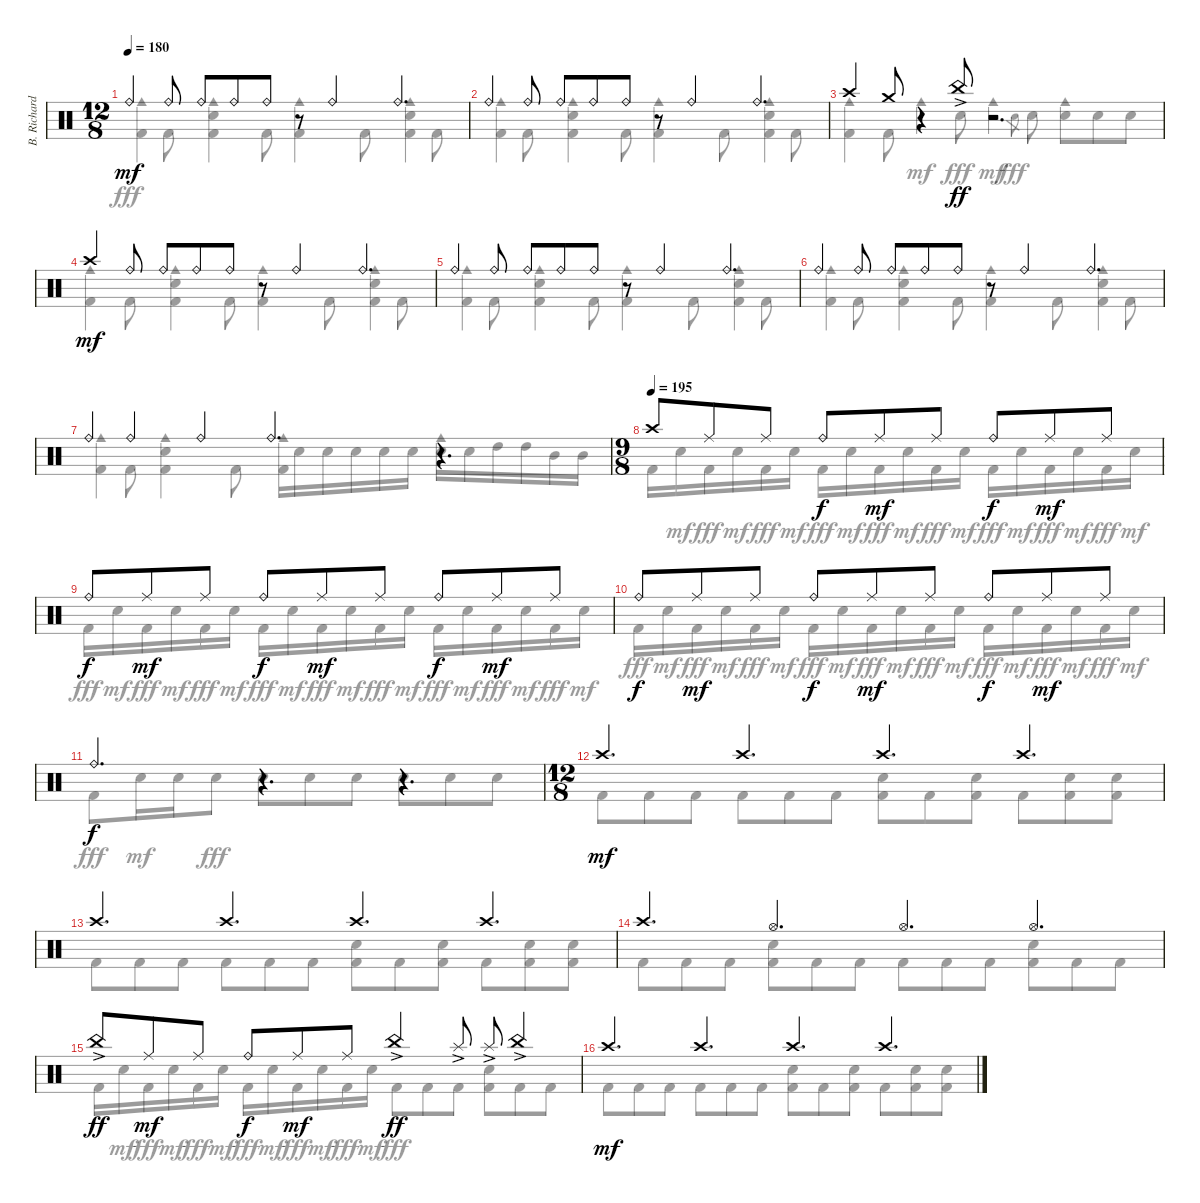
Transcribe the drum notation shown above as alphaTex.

\track ("B. Richardson Drums" "B. Richard") {instrument percussion}
\staff {score}
\articulation defaults
\voice
\ts (12 8)
\tempo 180
\clef neutral
\ks c "Ride (bell)".4{dy mf} "Ride (bell)".8 "Ride (bell)".8 "Ride (bell)".8 "Ride (bell)".8
r.8 "Ride (bell)".4 "Ride (bell)".4{d} |
"Ride (bell)".4 "Ride (bell)".8 "Ride (bell)".8 "Ride (bell)".8 "Ride (bell)".8 r.8 "Ride (bell)".4 "Ride (bell)".4{d} |
"Crash high (hit)".4 "Crash medium (hit)".8 r.4 "China (hit)"{ac}.8{dy ff} r.2{d} |
"Crash high (hit)".4{dy mf} "Ride (bell)".8 "Ride (bell)".8 "Ride (bell)".8 "Ride (bell)".8 r.8 "Ride (bell)".4 "Ride (bell)".4{d} |
"Ride (bell)".4 "Ride (bell)".8 "Ride (bell)".8 "Ride (bell)".8 "Ride (bell)".8 r.8 "Ride (bell)".4 "Ride (bell)".4{d} |
"Ride (bell)".4 "Ride (bell)".8 "Ride (bell)".8 "Ride (bell)".8 "Ride (bell)".8 r.8 "Ride (bell)".4 "Ride (bell)".4{d} |
"Ride (bell)".4 "Ride (bell)".4 "Ride (bell)".4 "Ride (bell)".4{d} r.4{d} |
\ts (9 8)
\tempo (195)
"Crash high (hit)".8 "Ride (middle)".8 "Ride (middle)".8 "Ride (bell)".8{dy f} "Ride (middle)".8{dy mf} "Ride (middle)".8 "Ride (bell)".8{dy f} "Ride (middle)".8{dy mf} "Ride (middle)".8 |
"Ride (bell)".8{dy f} "Ride (middle)".8{dy mf} "Ride (middle)".8 "Ride (bell)".8{dy f} "Ride (middle)".8{dy mf} "Ride (middle)".8 "Ride (bell)".8{dy f} "Ride (middle)".8{dy mf} "Ride (middle)".8 |
"Ride (bell)".8{dy f} "Ride (middle)".8{dy mf} "Ride (middle)".8 "Ride (bell)".8{dy f} "Ride (middle)".8{dy mf} "Ride (middle)".8 "Ride (bell)".8{dy f} "Ride (middle)".8{dy mf} "Ride (middle)".8 |
"Ride (bell)".4{d dy f} r.4{d} r.4{d} |
\ts (12 8)
"Crash high (hit)".4{d dy mf} "Crash high (hit)".4{d} "Crash high (hit)".4{d} "Crash high (hit)".4{d} |
"Crash high (hit)".4{d} "Crash high (hit)".4{d} "Crash high (hit)".4{d} "Crash high (hit)".4{d} |
"Crash high (hit)".4{d} "Hi-Hat (open)".4{d} "Hi-Hat (open)".4{d} "Hi-Hat (open)".4{d} |
"China (hit)"{ac}.8{dy ff} "Ride (middle)".8{dy mf} "Ride (middle)".8 "Ride (bell)".8{dy f} "Ride (middle)".8{dy mf} "Ride (middle)".8 "China (hit)"{ac}.4{dy ff} "Splash (hit)"{ac}.8 "Splash (hit)"{ac}.8 "China (hit)"{ac}.4 |
"Crash high (hit)".4{d dy mf} "Crash high (hit)".4{d} "Crash high (hit)".4{d} "Crash high (hit)".4{d}
\voice
\clef neutral
\ottava regular
\simile none
\ks c
("Cowbell medium (hit)" "Kick (hit) 2").4{dy fff} "Kick (hit) 2".8 ("Cowbell medium (hit)" "Electric Snare (hit)" "Kick (hit) 2").4 "Kick (hit) 2".8 ("Cowbell medium (hit)" "Kick (hit) 2").4 "Kick (hit) 2".8 ("Cowbell medium (hit)" "Electric Snare (hit)" "Kick (hit) 2").4 "Kick (hit) 2".8 |
("Cowbell medium (hit)" "Kick (hit) 2").4 "Kick (hit) 2".8 ("Cowbell medium (hit)" "Electric Snare (hit)" "Kick (hit) 2").4 "Kick (hit) 2".8 ("Cowbell medium (hit)" "Kick (hit) 2").4 "Kick (hit) 2".8 ("Cowbell medium (hit)" "Electric Snare (hit)" "Kick (hit) 2").4 "Kick (hit) 2".8 |
("Cowbell medium (hit)" "Kick (hit) 2").4 "Kick (hit) 2".8 "Cowbell medium (hit)".4{dy mf} "Electric Snare (hit)".8{dy fff} "Cowbell medium (hit)".4{dy mf} "Electric Snare (hit)".8{gr dy fff} "Electric Snare (hit)".8 ("Cowbell medium (hit)" "Electric Snare (hit)").8 "Electric Snare (hit)".8 "Electric Snare (hit)".8 |
("Cowbell medium (hit)" "Kick (hit) 2").4 "Kick (hit) 2".8 ("Cowbell medium (hit)" "Electric Snare (hit)" "Kick (hit) 2").4 "Kick (hit) 2".8 ("Cowbell medium (hit)" "Kick (hit) 2").4 "Kick (hit) 2".8 ("Cowbell medium (hit)" "Electric Snare (hit)" "Kick (hit) 2").4 "Kick (hit) 2".8 |
("Cowbell medium (hit)" "Kick (hit) 2").4 "Kick (hit) 2".8 ("Cowbell medium (hit)" "Electric Snare (hit)" "Kick (hit) 2").4 "Kick (hit) 2".8 ("Cowbell medium (hit)" "Kick (hit) 2").4 "Kick (hit) 2".8 ("Cowbell medium (hit)" "Electric Snare (hit)" "Kick (hit) 2").4 "Kick (hit) 2".8 |
("Cowbell medium (hit)" "Kick (hit) 2").4 "Kick (hit) 2".8 ("Cowbell medium (hit)" "Electric Snare (hit)" "Kick (hit) 2").4 "Kick (hit) 2".8 ("Cowbell medium (hit)" "Kick (hit) 2").4 "Kick (hit) 2".8 ("Cowbell medium (hit)" "Electric Snare (hit)" "Kick (hit) 2").4 "Kick (hit) 2".8 |
("Cowbell medium (hit)" "Kick (hit) 2").4 "Kick (hit) 2".8 ("Cowbell medium (hit)" "Electric Snare (hit)" "Kick (hit) 2").4 "Kick (hit) 2".8 ("Cowbell medium (hit)" "Kick (hit) 2").16 "Electric Snare (hit)".16 "Electric Snare (hit)".16 "Electric Snare (hit)".16 "Electric Snare (hit)".16 "Electric Snare (hit)".16 ("Cowbell medium (hit)" "Electric Snare (hit)").16 "Electric Snare (hit)".16 "High Tom (hit)".16 "High Tom (hit)".16 "Mid Tom (hit)".16 "Mid Tom (hit)".16 |
"Kick (hit) 2".16 "Electric Snare (hit)".16{dy mf} "Kick (hit) 2".16{dy fff} "Electric Snare (hit)".16{dy mf} "Kick (hit) 2".16{dy fff} "Electric Snare (hit)".16{dy mf} "Kick (hit) 2".16{dy fff} "Electric Snare (hit)".16{dy mf} "Kick (hit) 2".16{dy fff} "Electric Snare (hit)".16{dy mf} "Kick (hit) 2".16{dy fff} "Electric Snare (hit)".16{dy mf} "Kick (hit) 2".16{dy fff} "Electric Snare (hit)".16{dy mf} "Kick (hit) 2".16{dy fff} "Electric Snare (hit)".16{dy mf} "Kick (hit) 2".16{dy fff} "Electric Snare (hit)".16{dy mf} |
"Kick (hit) 2".16{dy fff} "Electric Snare (hit)".16{dy mf} "Kick (hit) 2".16{dy fff} "Electric Snare (hit)".16{dy mf} "Kick (hit) 2".16{dy fff} "Electric Snare (hit)".16{dy mf} "Kick (hit) 2".16{dy fff} "Electric Snare (hit)".16{dy mf} "Kick (hit) 2".16{dy fff} "Electric Snare (hit)".16{dy mf} "Kick (hit) 2".16{dy fff} "Electric Snare (hit)".16{dy mf} "Kick (hit) 2".16{dy fff} "Electric Snare (hit)".16{dy mf} "Kick (hit) 2".16{dy fff} "Electric Snare (hit)".16{dy mf} "Kick (hit) 2".16{dy fff} "Electric Snare (hit)".16{dy mf} |
"Kick (hit) 2".16{dy fff} "Electric Snare (hit)".16{dy mf} "Kick (hit) 2".16{dy fff} "Electric Snare (hit)".16{dy mf} "Kick (hit) 2".16{dy fff} "Electric Snare (hit)".16{dy mf} "Kick (hit) 2".16{dy fff} "Electric Snare (hit)".16{dy mf} "Kick (hit) 2".16{dy fff} "Electric Snare (hit)".16{dy mf} "Kick (hit) 2".16{dy fff} "Electric Snare (hit)".16{dy mf} "Kick (hit) 2".16{dy fff} "Electric Snare (hit)".16{dy mf} "Kick (hit) 2".16{dy fff} "Electric Snare (hit)".16{dy mf} "Kick (hit) 2".16{dy fff} "Electric Snare (hit)".16{dy mf} |
"Kick (hit) 2".8{dy fff} "Electric Snare (hit)".16{dy mf} "Electric Snare (hit)".16 "Electric Snare (hit)".8{dy fff} "Electric Snare (hit)".8 "Electric Snare (hit)".8 "Electric Snare (hit)".8 "Electric Snare (hit)".8 "Electric Snare (hit)".8 "Electric Snare (hit)".8 |
"Kick (hit) 2".8 "Kick (hit) 2".8 "Kick (hit) 2".8 "Kick (hit) 2".8 "Kick (hit) 2".8 "Kick (hit) 2".8 ("Electric Snare (hit)" "Kick (hit) 2").8 "Kick (hit) 2".8 ("Electric Snare (hit)" "Kick (hit) 2").8 "Kick (hit) 2".8 ("Electric Snare (hit)" "Kick (hit) 2").8 ("Electric Snare (hit)" "Kick (hit) 2").8 |
"Kick (hit) 2".8 "Kick (hit) 2".8 "Kick (hit) 2".8 "Kick (hit) 2".8 "Kick (hit) 2".8 "Kick (hit) 2".8 ("Electric Snare (hit)" "Kick (hit) 2").8 "Kick (hit) 2".8 ("Electric Snare (hit)" "Kick (hit) 2").8 "Kick (hit) 2".8 ("Electric Snare (hit)" "Kick (hit) 2").8 ("Electric Snare (hit)" "Kick (hit) 2").8 |
"Kick (hit) 2".8 "Kick (hit) 2".8 "Kick (hit) 2".8 ("Electric Snare (hit)" "Kick (hit) 2").8 "Kick (hit) 2".8 "Kick (hit) 2".8 "Kick (hit) 2".8 "Kick (hit) 2".8 "Kick (hit) 2".8 ("Electric Snare (hit)" "Kick (hit) 2").8 "Kick (hit) 2".8 "Kick (hit) 2".8 |
"Kick (hit) 2".16 "Electric Snare (hit)".16{dy mf} "Kick (hit) 2".16{dy fff} "Electric Snare (hit)".16{dy mf} "Kick (hit) 2".16{dy fff} "Electric Snare (hit)".16{dy mf} "Kick (hit) 2".16{dy fff} "Electric Snare (hit)".16{dy mf} "Kick (hit) 2".16{dy fff} "Electric Snare (hit)".16{dy mf} "Kick (hit) 2".16{dy fff} "Electric Snare (hit)".16{dy mf} "Kick (hit) 2".8{dy fff} "Kick (hit) 2".8 "Kick (hit) 2".8 ("Electric Snare (hit)" "Kick (hit) 2").8 "Kick (hit) 2".8 "Kick (hit) 2".8 |
"Kick (hit) 2".8 "Kick (hit) 2".8 "Kick (hit) 2".8 "Kick (hit) 2".8 "Kick (hit) 2".8 "Kick (hit) 2".8 ("Electric Snare (hit)" "Kick (hit) 2").8 "Kick (hit) 2".8 ("Electric Snare (hit)" "Kick (hit) 2").8 "Kick (hit) 2".8 ("Electric Snare (hit)" "Kick (hit) 2").8 ("Electric Snare (hit)" "Kick (hit) 2").8
